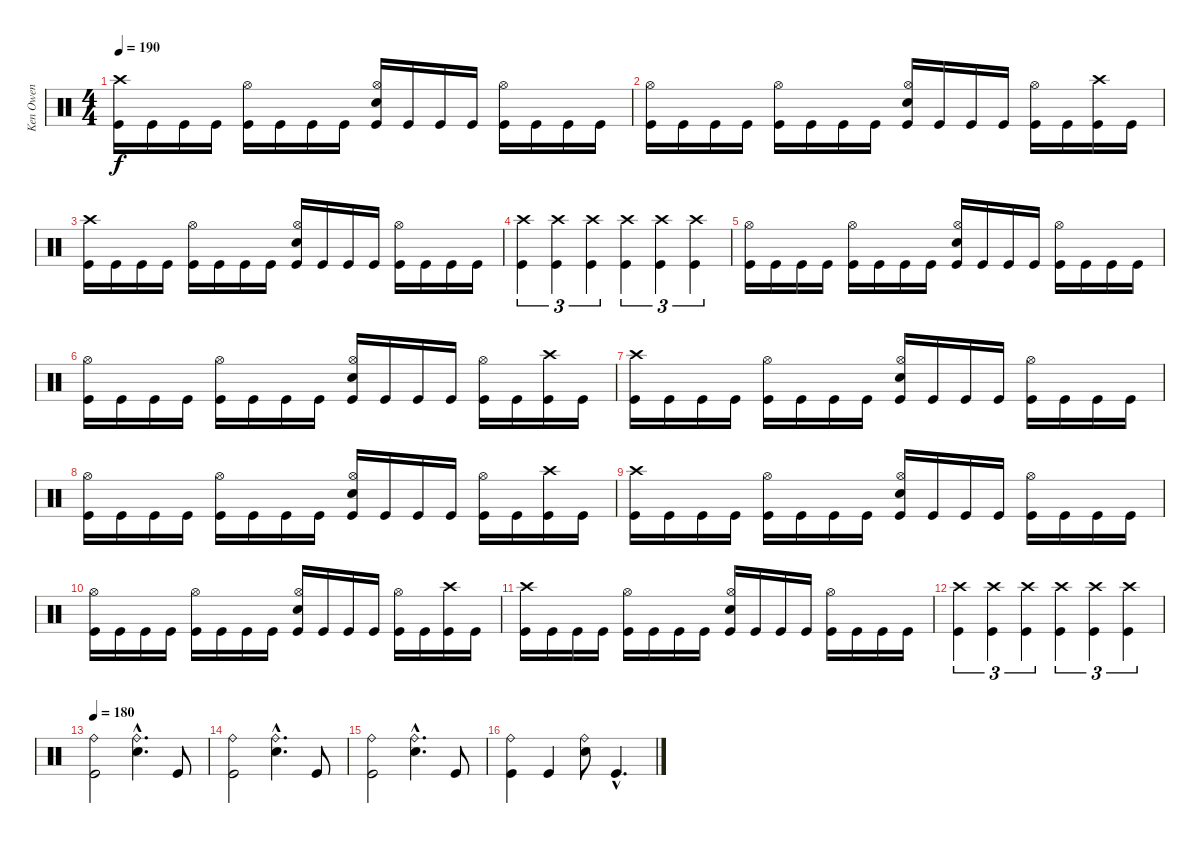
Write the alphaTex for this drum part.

\track ("Ken Owen" "Ken Owen") {instrument percussion}
\staff {score}
\articulation defaults
\ts (4 4)
\tempo 190
\clef neutral
\ks c
("Crash high (hit)" "Kick (hit)").16{dy f} "Kick (hit)".16 "Kick (hit)".16 "Kick (hit)".16 ("Hi-Hat (open)" "Kick (hit)").16 "Kick (hit)".16 "Kick (hit)".16 "Kick (hit)".16 ("Hi-Hat (open)" "Snare (hit) 2" "Kick (hit)").16 "Kick (hit)".16 "Kick (hit)".16 "Kick (hit)".16 ("Hi-Hat (open)" "Kick (hit)").16 "Kick (hit)".16 "Kick (hit)".16 "Kick (hit)".16 |
("Hi-Hat (open)" "Kick (hit)").16 "Kick (hit)".16 "Kick (hit)".16 "Kick (hit)".16 ("Hi-Hat (open)" "Kick (hit)").16 "Kick (hit)".16 "Kick (hit)".16 "Kick (hit)".16 ("Hi-Hat (open)" "Snare (hit) 2" "Kick (hit)").16 "Kick (hit)".16 "Kick (hit)".16 "Kick (hit)".16 ("Hi-Hat (open)" "Kick (hit)").16 "Kick (hit)".16 ("Crash high (hit)" "Kick (hit)").16 "Kick (hit)".16 |
("Crash high (hit)" "Kick (hit)").16 "Kick (hit)".16 "Kick (hit)".16 "Kick (hit)".16 ("Hi-Hat (open)" "Kick (hit)").16 "Kick (hit)".16 "Kick (hit)".16 "Kick (hit)".16 ("Hi-Hat (open)" "Snare (hit) 2" "Kick (hit)").16 "Kick (hit)".16 "Kick (hit)".16 "Kick (hit)".16 ("Hi-Hat (open)" "Kick (hit)").16 "Kick (hit)".16 "Kick (hit)".16 "Kick (hit)".16 |
("Crash high (hit)" "Kick (hit)").4{tu (3 2)} ("Crash high (hit)" "Kick (hit)").4{tu (3 2)} ("Crash high (hit)" "Kick (hit)").4{tu (3 2)} ("Crash high (hit)" "Kick (hit)").4{tu (3 2)} ("Crash high (hit)" "Kick (hit)").4{tu (3 2)} ("Crash high (hit)" "Kick (hit)").4{tu (3 2)} |
("Hi-Hat (open)" "Kick (hit)").16 "Kick (hit)".16 "Kick (hit)".16 "Kick (hit)".16 ("Hi-Hat (open)" "Kick (hit)").16 "Kick (hit)".16 "Kick (hit)".16 "Kick (hit)".16 ("Hi-Hat (open)" "Snare (hit) 2" "Kick (hit)").16 "Kick (hit)".16 "Kick (hit)".16 "Kick (hit)".16 ("Hi-Hat (open)" "Kick (hit)").16 "Kick (hit)".16 "Kick (hit)".16 "Kick (hit)".16 |
("Hi-Hat (open)" "Kick (hit)").16 "Kick (hit)".16 "Kick (hit)".16 "Kick (hit)".16 ("Hi-Hat (open)" "Kick (hit)").16 "Kick (hit)".16 "Kick (hit)".16 "Kick (hit)".16 ("Hi-Hat (open)" "Snare (hit) 2" "Kick (hit)").16 "Kick (hit)".16 "Kick (hit)".16 "Kick (hit)".16 ("Hi-Hat (open)" "Kick (hit)").16 "Kick (hit)".16 ("Crash high (hit)" "Kick (hit)").16 "Kick (hit)".16 |
("Crash high (hit)" "Kick (hit)").16 "Kick (hit)".16 "Kick (hit)".16 "Kick (hit)".16 ("Hi-Hat (open)" "Kick (hit)").16 "Kick (hit)".16 "Kick (hit)".16 "Kick (hit)".16 ("Hi-Hat (open)" "Snare (hit) 2" "Kick (hit)").16 "Kick (hit)".16 "Kick (hit)".16 "Kick (hit)".16 ("Hi-Hat (open)" "Kick (hit)").16 "Kick (hit)".16 "Kick (hit)".16 "Kick (hit)".16 |
("Hi-Hat (open)" "Kick (hit)").16 "Kick (hit)".16 "Kick (hit)".16 "Kick (hit)".16 ("Hi-Hat (open)" "Kick (hit)").16 "Kick (hit)".16 "Kick (hit)".16 "Kick (hit)".16 ("Hi-Hat (open)" "Snare (hit) 2" "Kick (hit)").16 "Kick (hit)".16 "Kick (hit)".16 "Kick (hit)".16 ("Hi-Hat (open)" "Kick (hit)").16 "Kick (hit)".16 ("Crash high (hit)" "Kick (hit)").16 "Kick (hit)".16 |
("Crash high (hit)" "Kick (hit)").16 "Kick (hit)".16 "Kick (hit)".16 "Kick (hit)".16 ("Hi-Hat (open)" "Kick (hit)").16 "Kick (hit)".16 "Kick (hit)".16 "Kick (hit)".16 ("Hi-Hat (open)" "Snare (hit) 2" "Kick (hit)").16 "Kick (hit)".16 "Kick (hit)".16 "Kick (hit)".16 ("Hi-Hat (open)" "Kick (hit)").16 "Kick (hit)".16 "Kick (hit)".16 "Kick (hit)".16 |
("Hi-Hat (open)" "Kick (hit)").16 "Kick (hit)".16 "Kick (hit)".16 "Kick (hit)".16 ("Hi-Hat (open)" "Kick (hit)").16 "Kick (hit)".16 "Kick (hit)".16 "Kick (hit)".16 ("Hi-Hat (open)" "Snare (hit) 2" "Kick (hit)").16 "Kick (hit)".16 "Kick (hit)".16 "Kick (hit)".16 ("Hi-Hat (open)" "Kick (hit)").16 "Kick (hit)".16 ("Crash high (hit)" "Kick (hit)").16 "Kick (hit)".16 |
("Crash high (hit)" "Kick (hit)").16 "Kick (hit)".16 "Kick (hit)".16 "Kick (hit)".16 ("Hi-Hat (open)" "Kick (hit)").16 "Kick (hit)".16 "Kick (hit)".16 "Kick (hit)".16 ("Hi-Hat (open)" "Snare (hit) 2" "Kick (hit)").16 "Kick (hit)".16 "Kick (hit)".16 "Kick (hit)".16 ("Hi-Hat (open)" "Kick (hit)").16 "Kick (hit)".16 "Kick (hit)".16 "Kick (hit)".16 |
("Crash high (hit)" "Kick (hit)").4{tu (3 2)} ("Crash high (hit)" "Kick (hit)").4{tu (3 2)} ("Crash high (hit)" "Kick (hit)").4{tu (3 2)} ("Crash high (hit)" "Kick (hit)").4{tu (3 2)} ("Crash high (hit)" "Kick (hit)").4{tu (3 2)} ("Crash high (hit)" "Kick (hit)").4{tu (3 2)} |
\tempo 180
("Ride (bell)" "Kick (hit)").2 ("Ride (bell)"{hac} "Snare (hit) 2"{hac}).4{d} "Kick (hit)".8 |
("Ride (bell)" "Kick (hit)").2 ("Ride (bell)"{hac} "Snare (hit) 2"{hac}).4{d} "Kick (hit)".8 |
("Ride (bell)" "Kick (hit)").2 ("Ride (bell)"{hac} "Snare (hit) 2"{hac}).4{d} "Kick (hit)".8 |
("Ride (bell)" "Kick (hit)").4 "Kick (hit)".4 ("Ride (bell)" "Snare (hit) 2").8 "Kick (hit)"{hac}.4{d}
